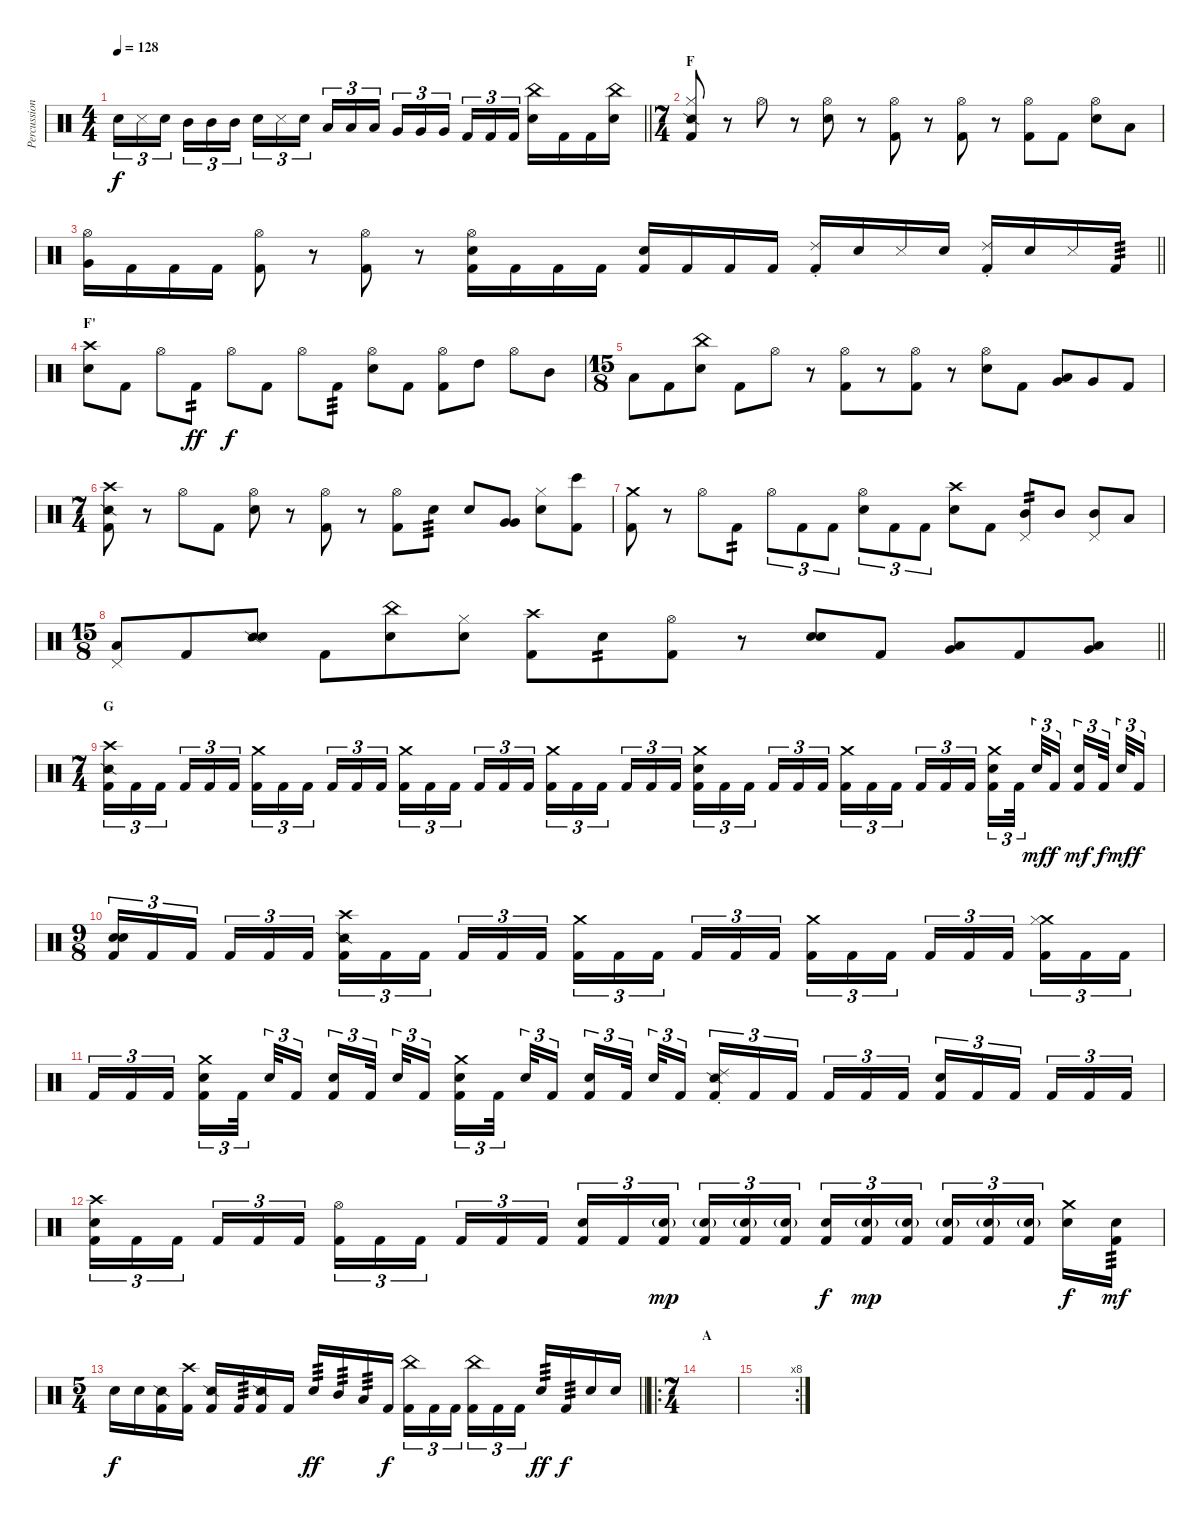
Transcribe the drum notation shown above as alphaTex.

\track ("Percussion" "Percussion") {instrument percussion}
\staff {score}
\articulation defaults
\ts (4 4)
\tempo 128
\clef neutral
\barLineRight lightlight
\ks c "Snare (hit) 2".16{tu (3 2) dy f} "Metronome (hit)".16{tu (3 2)} "Snare (hit) 2".16{tu (3 2) beam splitsecondary} "Mid Tom (hit)".16{tu (3 2)} "Mid Tom (hit)".16{tu (3 2)} "Mid Tom (hit)".16{tu (3 2)} "Snare (hit) 2".16{tu (3 2)} "Metronome (hit)".16{tu (3 2)} "Snare (hit) 2".16{tu (3 2) beam splitsecondary} "Low Tom (hit)".16{tu (3 2)} "Low Tom (hit)".16{tu (3 2)} "Low Tom (hit)".16{tu (3 2)} "Very Low Tom (hit)".16{tu (3 2)} "Very Low Tom (hit)".16{tu (3 2)} "Very Low Tom (hit)".16{tu (3 2) beam splitsecondary} "Kick (hit) 2".16{tu (3 2)} "Kick (hit) 2".16{tu (3 2)} "Kick (hit) 2".16{tu (3 2)}
("China (hit)" "Snare (hit) 2").16 "Kick (hit) 2".16 "Kick (hit) 2".16 ("China (hit)" "Snare (hit) 2").16 |
\ts (7 4)
\section ("" "F")
("Hi-Hat (closed)" "Snare (side stick) 2" "Kick (hit) 2").8 r.8 "Hi-Hat (open)".8 r.8 ("Hi-Hat (open)" "Snare (hit) 2").8 r.8 ("Hi-Hat (open)" "Kick (hit) 2").8 r.8 ("Hi-Hat (open)" "Kick (hit) 2").8 r.8 ("Hi-Hat (open)" "Kick (hit) 2").8 "Kick (hit) 2".8 ("Hi-Hat (open)" "Snare (hit) 2").8 "Low Tom (hit)".8 |
\barLineRight lightlight
("Hi-Hat (open)" "Very Low Tom (hit)").16 "Kick (hit) 2".16 "Kick (hit) 2".16 "Kick (hit) 2".16 ("Hi-Hat (open)" "Kick (hit) 2").8 r.8 ("Hi-Hat (open)" "Kick (hit) 2").8 r.8 ("Hi-Hat (open)" "Snare (hit) 2" "Kick (hit) 2").16 "Kick (hit) 2".16 "Kick (hit) 2".16 "Kick (hit) 2".16 ("Snare (hit)" "Kick (hit) 2").16 "Kick (hit) 2".16 "Kick (hit) 2".16 "Kick (hit) 2".16 ("Ride (choke) 2" "Kick (hit) 2").16 "Snare (hit) 2".16 "Metronome (hit)".16 "Snare (hit) 2".16 ("Ride (choke) 2" "Kick (hit) 2").16 "Snare (hit) 2".16 "Metronome (hit)".16 "Kick (hit) 2".16{tp 3} |
\section ("" "F'")
("Crash high (hit)" "Snare (hit) 2").8 "Kick (hit) 2".8 "Hi-Hat (open)".8 "Kick (hit) 2".8{tp 2 dy ff} "Hi-Hat (open)".8{dy f} "Kick (hit) 2".8 "Hi-Hat (open)".8 "Kick (hit) 2".8{tp 3} ("Hi-Hat (open)" "Snare (hit) 2").8 "Kick (hit) 2".8 ("Hi-Hat (open)" "Kick (hit) 2").8 "High Tom (hit)".8 "Hi-Hat (open)".8 "Mid Tom (hit)".8 |
\ts (15 8)
"Low Tom (hit)".8 "Kick (hit) 2".8 ("China (hit)" "Snare (hit) 2").8 "Kick (hit) 2".8 "Hi-Hat (open)".8 r.8 ("Hi-Hat (open)" "Kick (hit) 2").8 r.8 ("Hi-Hat (open)" "Kick (hit) 2").8 r.8 ("Hi-Hat (open)" "Snare (hit) 2").8 "Kick (hit) 2".8 ("Low Tom (hit)" "Very Low Tom (hit)").8{bu 60} "Very Low Tom (hit)".8 "Kick (hit) 2".8 |
\ts (7 4)
("Crash high (hit)" "Snare (side stick) 2" "Kick (hit) 2").8 r.8 "Hi-Hat (open)".8 "Kick (hit) 2".8 ("Hi-Hat (open)" "Snare (hit) 2").8 r.8 ("Hi-Hat (open)" "Kick (hit) 2").8 r.8 ("Hi-Hat (open)" "Kick (hit) 2").8 "Snare (hit) 2".8{tp 3} "Snare (hit) 2".8 ("Very Low Tom (hit)" "Very Low Tom (hit)").8{bu 60} ("Hi-Hat (closed)" "Snare (hit) 2").8 ("Bongo High (hit)" "Kick (hit) 2").8 |
("Crash medium (hit)" "Kick (hit) 2").8 r.8 "Hi-Hat (open)".8 "Kick (hit) 2".8{tp 2} "Hi-Hat (open)".8{tu (3 2)} "Kick (hit) 2".8{tu (3 2)} "Kick (hit) 2".8{tu (3 2)} ("Hi-Hat (open)" "Snare (hit) 2").8{tu (3 2)} "Kick (hit) 2".8{tu (3 2)} "Kick (hit) 2".8{tu (3 2)} ("Crash high (hit)" "Snare (hit) 2").8 "Kick (hit) 2".8 ("Pedal Hi-Hat (hit)" "Mid Tom (hit)").8{tp 2} "Mid Tom (hit)".8 ("Pedal Hi-Hat (hit)" "Mid Tom (hit)").8 "Low Tom (hit)".8 |
\ts (15 8)
\barLineRight lightlight
("Pedal Hi-Hat (hit)" "Low Tom (hit)").8 "Kick (hit) 2".8 ("Snare (side stick) 2" "Snare (hit) 2").8 "Kick (hit) 2".8 ("China (hit)" "Snare (hit) 2").8 ("Hi-Hat (closed)" "Snare (hit) 2").8 ("Crash high (hit)" "Kick (hit) 2").8 "Snare (hit)".8{tp 2} ("Hi-Hat (open)" "Kick (hit) 2").8 r.8 ("Snare (hit)" "Snare (hit) 2").8 "Kick (hit) 2".8 ("Low Tom (hit)" "Very Low Tom (hit)").8{bu 60} "Kick (hit) 2".8 ("Very Low Tom (hit)" "Low Floor Tom (hit)").8{bu 60} |
\ts (7 4)
\section ("" "G")
("Crash high (hit)" "Snare (side stick) 2" "Kick (hit) 2").16{tu (3 2)} "Kick (hit) 2".16{tu (3 2)} "Kick (hit) 2".16{tu (3 2) beam splitsecondary} "Kick (hit) 2".16{tu (3 2)} "Kick (hit) 2".16{tu (3 2)} "Kick (hit) 2".16{tu (3 2)} ("Crash medium (hit)" "Kick (hit) 2").16{tu (3 2)} "Kick (hit) 2".16{tu (3 2)} "Kick (hit) 2".16{tu (3 2) beam splitsecondary} "Kick (hit) 2".16{tu (3 2)} "Kick (hit) 2".16{tu (3 2)} "Kick (hit) 2".16{tu (3 2)} ("Crash medium (hit)" "Kick (hit) 2").16{tu (3 2)} "Kick (hit) 2".16{tu (3 2)} "Kick (hit) 2".16{tu (3 2) beam splitsecondary} "Kick (hit) 2".16{tu (3 2)} "Kick (hit) 2".16{tu (3 2)} "Kick (hit) 2".16{tu (3 2)} ("Crash medium (hit)" "Kick (hit) 2").16{tu (3 2)} "Kick (hit) 2".16{tu (3 2)} "Kick (hit) 2".16{tu (3 2) beam splitsecondary} "Kick (hit) 2".16{tu (3 2)} "Kick (hit) 2".16{tu (3 2)} "Kick (hit) 2".16{tu (3 2)} ("Crash medium (hit)" "Snare (hit) 2" "Kick (hit) 2").16{tu (3 2)} "Kick (hit) 2".16{tu (3 2)} "Kick (hit) 2".16{tu (3 2) beam splitsecondary} "Kick (hit) 2".16{tu (3 2)} "Kick (hit) 2".16{tu (3 2)} "Kick (hit) 2".16{tu (3 2)} ("Crash medium (hit)" "Kick (hit) 2").16{tu (3 2)} "Kick (hit) 2".16{tu (3 2)} "Kick (hit) 2".16{tu (3 2) beam splitsecondary} "Kick (hit) 2".16{tu (3 2)} "Kick (hit) 2".16{tu (3 2)} "Kick (hit) 2".16{tu (3 2)} ("Crash medium (hit)" "Snare (hit) 2" "Kick (hit) 2").16{tu (3 2)} "Kick (hit) 2".32{tu (3 2) beam splitsecondary} "Snare (hit) 2".32{tu (3 2) dy mf} "Kick (hit) 2".16{tu (3 2) dy f beam splitsecondary} ("Snare (hit) 2" "Kick (hit) 2").16{tu (3 2) dy mf} "Kick (hit) 2".32{tu (3 2) dy f beam splitsecondary} "Snare (hit) 2".32{tu (3 2) dy mf} "Kick (hit) 2".16{tu (3 2) dy f} |
\ts (9 8)
("Snare (hit)" "Snare (hit) 2" "Kick (hit) 2").16{tu (3 2)} "Kick (hit) 2".16{tu (3 2)} "Kick (hit) 2".16{tu (3 2) beam splitsecondary} "Kick (hit) 2".16{tu (3 2)} "Kick (hit) 2".16{tu (3 2)} "Kick (hit) 2".16{tu (3 2) beam splitsecondary} ("Crash high (hit)" "Snare (side stick) 2" "Kick (hit) 2").16{tu (3 2)} "Kick (hit) 2".16{tu (3 2)} "Kick (hit) 2".16{tu (3 2)} "Kick (hit) 2".16{tu (3 2)} "Kick (hit) 2".16{tu (3 2)} "Kick (hit) 2".16{tu (3 2) beam splitsecondary} ("Crash medium (hit)" "Kick (hit) 2").16{tu (3 2)} "Kick (hit) 2".16{tu (3 2)} "Kick (hit) 2".16{tu (3 2) beam splitsecondary} "Kick (hit) 2".16{tu (3 2)} "Kick (hit) 2".16{tu (3 2)} "Kick (hit) 2".16{tu (3 2)} ("Crash medium (hit)" "Kick (hit) 2").16{tu (3 2)} "Kick (hit) 2".16{tu (3 2)} "Kick (hit) 2".16{tu (3 2) beam splitsecondary} "Kick (hit) 2".16{tu (3 2)} "Kick (hit) 2".16{tu (3 2)} "Kick (hit) 2".16{tu (3 2) beam splitsecondary} ("Crash medium (hit)" "Hi-Hat (closed)" "Kick (hit) 2").16{tu (3 2)} "Kick (hit) 2".16{tu (3 2)} "Kick (hit) 2".16{tu (3 2)} |
"Kick (hit) 2".16{tu (3 2)} "Kick (hit) 2".16{tu (3 2)} "Kick (hit) 2".16{tu (3 2) beam splitsecondary} ("Crash medium (hit)" "Snare (hit) 2" "Kick (hit) 2").16{tu (3 2)} "Kick (hit) 2".32{tu (3 2) beam splitsecondary} "Snare (hit) 2".32{tu (3 2)} "Kick (hit) 2".16{tu (3 2) beam splitsecondary} ("Snare (hit) 2" "Kick (hit) 2").16{tu (3 2)} "Kick (hit) 2".32{tu (3 2) beam splitsecondary} "Snare (hit) 2".32{tu (3 2)} "Kick (hit) 2".16{tu (3 2)} ("Crash medium (hit)" "Snare (hit) 2" "Kick (hit) 2").16{tu (3 2)} "Kick (hit) 2".32{tu (3 2) beam splitsecondary} "Snare (hit) 2".32{tu (3 2)} "Kick (hit) 2".16{tu (3 2) beam splitsecondary} ("Snare (hit) 2" "Kick (hit) 2").16{tu (3 2)} "Kick (hit) 2".32{tu (3 2) beam splitsecondary} "Snare (hit) 2".32{tu (3 2)} "Kick (hit) 2".16{tu (3 2) beam splitsecondary} ("Snare (side stick) 2" "Ride (choke) 2" "Kick (hit) 2").16{tu (3 2)} "Kick (hit) 2".16{tu (3 2)} "Kick (hit) 2".16{tu (3 2)} "Kick (hit) 2".16{tu (3 2)} "Kick (hit) 2".16{tu (3 2)} "Kick (hit) 2".16{tu (3 2) beam splitsecondary} ("Snare (hit)" "Kick (hit) 2").16{tu (3 2)} "Kick (hit) 2".16{tu (3 2)} "Kick (hit) 2".16{tu (3 2) beam splitsecondary} "Kick (hit) 2".16{tu (3 2)} "Kick (hit) 2".16{tu (3 2)} "Kick (hit) 2".16{tu (3 2)} |
("Crash high (hit)" "Snare (hit) 2" "Kick (hit) 2").16{tu (3 2)} "Kick (hit) 2".16{tu (3 2)} "Kick (hit) 2".16{tu (3 2) beam splitsecondary} "Kick (hit) 2".16{tu (3 2)} "Kick (hit) 2".16{tu (3 2)} "Kick (hit) 2".16{tu (3 2) beam splitsecondary} ("Hi-Hat (open)" "Kick (hit) 2").16{tu (3 2)} "Kick (hit) 2".16{tu (3 2)} "Kick (hit) 2".16{tu (3 2)} "Kick (hit) 2".16{tu (3 2)} "Kick (hit) 2".16{tu (3 2)} "Kick (hit) 2".16{tu (3 2) beam splitsecondary} ("Snare (hit)" "Kick (hit) 2").16{tu (3 2)} "Kick (hit) 2".16{tu (3 2)} ("Snare (hit) 2"{g} "Kick (hit) 2").16{tu (3 2) dy mp beam splitsecondary} ("Snare (hit) 2"{g} "Kick (hit) 2").16{tu (3 2)} ("Snare (hit) 2"{g} "Kick (hit) 2").16{tu (3 2)} ("Snare (hit) 2"{g} "Kick (hit) 2").16{tu (3 2)} ("Snare (hit) 2" "Kick (hit) 2").16{tu (3 2) dy f} ("Snare (hit) 2"{g} "Kick (hit) 2").16{tu (3 2) dy mp} ("Snare (hit) 2"{g} "Kick (hit) 2").16{tu (3 2) beam splitsecondary} ("Snare (hit) 2"{g} "Kick (hit) 2").16{tu (3 2)} ("Snare (hit) 2"{g} "Kick (hit) 2").16{tu (3 2)} ("Snare (hit) 2"{g} "Kick (hit) 2").16{tu (3 2) beam splitsecondary} ("Crash medium (hit)" "Snare (hit) 2").16{dy f} ("Snare (hit) 2" "Kick (hit) 2").16{tp 3 dy mf} |
\ts (5 4)
\barLineRight lightlight "Snare (hit) 2".16{dy f} "Snare (hit) 2".16
("Snare (side stick) 2" "Kick (hit) 2").16 ("Crash high (hit)" "Kick (hit) 2").16 ("Snare (side stick) 2" "Kick (hit) 2").16 "Kick (hit) 2".16{tp 3} ("Snare (side stick) 2" "Kick (hit) 2").16 "Kick (hit) 2".16 "Snare (hit) 2".16{tp 3 dy ff} "Mid Tom (hit)".16{tp 3} "Low Tom (hit)".16{tp 3} "Kick (hit) 2".16{dy f} ("China (hit)" "Kick (hit) 2").16{tu (3 2)} "Kick (hit) 2".16{tu (3 2)} "Kick (hit) 2".16{tu (3 2) beam splitsecondary} ("China (hit)" "Kick (hit) 2").16{tu (3 2)} "Kick (hit) 2".16{tu (3 2)} "Kick (hit) 2".16{tu (3 2)} "Snare (hit) 2".16{tp 3 dy ff} "Kick (hit) 2".16{tp 3 dy f} "Snare (hit) 2".16 "Snare (hit) 2".16 |
\ro
\ts (7 4)
\section ("" "A")
|
\rc 8
